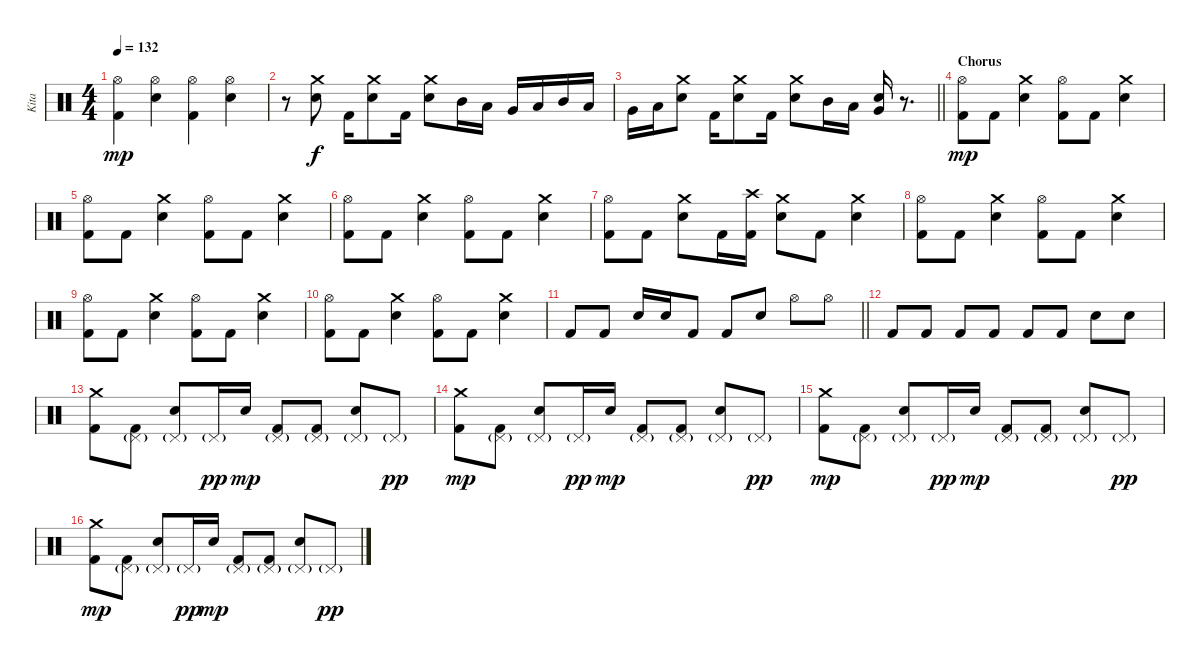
\track ("Kita" "Kita") {instrument percussion}
\staff {score}
\articulation defaults
\ts (4 4)
\tempo 132
\clef neutral
\ks c
("Hi-Hat (open)" "Kick (hit) 2").4{dy mp} ("Hi-Hat (open)" "Snare (hit) 2").4 ("Hi-Hat (open)" "Kick (hit) 2").4 ("Hi-Hat (open)" "Snare (hit) 2").4 |
r.8 ("Crash medium (hit)" "Snare (hit) 2").8{dy f} "Kick (hit) 2".16 ("Crash medium (hit)" "Snare (hit) 2").8 "Kick (hit) 2".16 ("Crash medium (hit)" "Snare (hit) 2").8 "Mid Tom (hit)".16 "Low Tom (hit)".16 "Very Low Tom (hit)".16 "Low Floor Tom (hit)".16 "Mid Tom (hit)".16 "Low Tom (hit)".16 |
\barLineRight lightlight "Very Low Tom (hit)".16 "Low Floor Tom (hit)".16
("Crash medium (hit)" "Snare (hit) 2").8 "Kick (hit) 2".16 ("Crash medium (hit)" "Snare (hit) 2").8 "Kick (hit) 2".16 ("Crash medium (hit)" "Snare (hit) 2").8 "Mid Tom (hit)".16 "Low Tom (hit)".16 ("Very Low Tom (hit)" "Snare (hit) 2").16 r.8{d} |
\section ("" "Chorus")
("Hi-Hat (open)" "Kick (hit) 2").8{dy mp} "Kick (hit) 2".8 ("Crash medium (hit)" "Snare (hit) 2").4 ("Hi-Hat (open)" "Kick (hit) 2").8 "Kick (hit) 2".8 ("Crash medium (hit)" "Snare (hit) 2").4 |
("Hi-Hat (open)" "Kick (hit) 2").8 "Kick (hit) 2".8 ("Crash medium (hit)" "Snare (hit) 2").4 ("Hi-Hat (open)" "Kick (hit) 2").8 "Kick (hit) 2".8 ("Crash medium (hit)" "Snare (hit) 2").4 |
("Hi-Hat (open)" "Kick (hit) 2").8 "Kick (hit) 2".8 ("Crash medium (hit)" "Snare (hit) 2").4 ("Hi-Hat (open)" "Kick (hit) 2").8 "Kick (hit) 2".8 ("Crash medium (hit)" "Snare (hit) 2").4 |
("Hi-Hat (open)" "Kick (hit) 2").8 "Kick (hit) 2".8 ("Crash medium (hit)" "Snare (hit) 2").8 "Kick (hit) 2".16 ("Crash high (hit)" "Kick (hit) 2").16 ("Crash medium (hit)" "Snare (hit) 2").8 "Kick (hit) 2".8 ("Crash medium (hit)" "Snare (hit) 2").4 |
("Hi-Hat (open)" "Kick (hit) 2").8 "Kick (hit) 2".8 ("Crash medium (hit)" "Snare (hit) 2").4 ("Hi-Hat (open)" "Kick (hit) 2").8 "Kick (hit) 2".8 ("Crash medium (hit)" "Snare (hit) 2").4 |
("Hi-Hat (open)" "Kick (hit) 2").8 "Kick (hit) 2".8 ("Crash medium (hit)" "Snare (hit) 2").4 ("Hi-Hat (open)" "Kick (hit) 2").8 "Kick (hit) 2".8 ("Crash medium (hit)" "Snare (hit) 2").4 |
("Hi-Hat (open)" "Kick (hit) 2").8 "Kick (hit) 2".8 ("Crash medium (hit)" "Snare (hit) 2").4 ("Hi-Hat (open)" "Kick (hit) 2").8 "Kick (hit) 2".8 ("Crash medium (hit)" "Snare (hit) 2").4 |
\barLineRight lightlight "Kick (hit) 2".8 "Kick (hit) 2".8 "Snare (hit) 2".16 "Snare (hit) 2".16 "Kick (hit) 2".8 "Kick (hit) 2".8 "Snare (hit) 2".8 "Hi-Hat (open)".8 "Hi-Hat (open)".8
|
"Kick (hit) 2".8 "Kick (hit) 2".8 "Kick (hit) 2".8 "Kick (hit) 2".8 "Kick (hit) 2".8 "Kick (hit) 2".8 "Snare (hit) 2".8 "Snare (hit) 2".8 |
("Crash medium (hit)" "Kick (hit) 2").8 ("Pedal Hi-Hat (hit)"{g} "Kick (hit) 2").8 ("Pedal Hi-Hat (hit)"{g} "Snare (hit) 2").8 "Pedal Hi-Hat (hit)"{g}.16{dy pp} "Snare (hit) 2".16{dy mp} ("Pedal Hi-Hat (hit)"{g} "Kick (hit) 2").8 ("Pedal Hi-Hat (hit)"{g} "Kick (hit) 2").8 ("Pedal Hi-Hat (hit)"{g} "Snare (hit) 2").8 "Pedal Hi-Hat (hit)"{g}.8{dy pp} |
("Crash medium (hit)" "Kick (hit) 2").8{dy mp} ("Pedal Hi-Hat (hit)"{g} "Kick (hit) 2").8 ("Pedal Hi-Hat (hit)"{g} "Snare (hit) 2").8 "Pedal Hi-Hat (hit)"{g}.16{dy pp} "Snare (hit) 2".16{dy mp} ("Pedal Hi-Hat (hit)"{g} "Kick (hit) 2").8 ("Pedal Hi-Hat (hit)"{g} "Kick (hit) 2").8 ("Pedal Hi-Hat (hit)"{g} "Snare (hit) 2").8 "Pedal Hi-Hat (hit)"{g}.8{dy pp} |
("Crash medium (hit)" "Kick (hit) 2").8{dy mp} ("Pedal Hi-Hat (hit)"{g} "Kick (hit) 2").8 ("Pedal Hi-Hat (hit)"{g} "Snare (hit) 2").8 "Pedal Hi-Hat (hit)"{g}.16{dy pp} "Snare (hit) 2".16{dy mp} ("Pedal Hi-Hat (hit)"{g} "Kick (hit) 2").8 ("Pedal Hi-Hat (hit)"{g} "Kick (hit) 2").8 ("Pedal Hi-Hat (hit)"{g} "Snare (hit) 2").8 "Pedal Hi-Hat (hit)"{g}.8{dy pp} |
("Crash medium (hit)" "Kick (hit) 2").8{dy mp} ("Pedal Hi-Hat (hit)"{g} "Kick (hit) 2").8 ("Pedal Hi-Hat (hit)"{g} "Snare (hit) 2").8 "Pedal Hi-Hat (hit)"{g}.16{dy pp} "Snare (hit) 2".16{dy mp} ("Pedal Hi-Hat (hit)"{g} "Kick (hit) 2").8 ("Pedal Hi-Hat (hit)"{g} "Kick (hit) 2").8 ("Pedal Hi-Hat (hit)"{g} "Snare (hit) 2").8 "Pedal Hi-Hat (hit)"{g}.8{dy pp}
